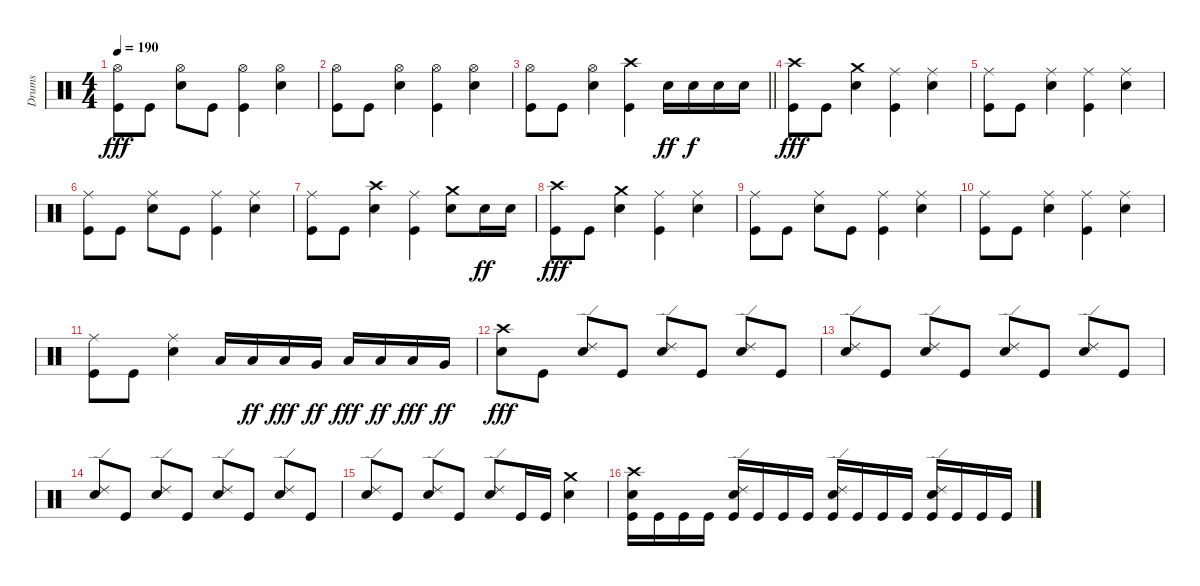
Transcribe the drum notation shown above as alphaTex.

\track ("Drums" "Drums") {instrument percussion}
\staff {score}
\articulation defaults
\ts (4 4)
\tempo 190
\clef neutral
\ks c
("Hi-Hat (open)" "Kick (hit)").8{dy fff} "Kick (hit)".8 ("Hi-Hat (open)" "Snare (hit) 2").8 "Kick (hit)".8 ("Hi-Hat (open)" "Kick (hit)").4 ("Hi-Hat (open)" "Snare (hit) 2").4 |
("Hi-Hat (open)" "Kick (hit)").8 "Kick (hit)".8 ("Hi-Hat (open)" "Snare (hit) 2").4 ("Hi-Hat (open)" "Kick (hit)").4 ("Hi-Hat (open)" "Snare (hit) 2").4 |
\barLineRight lightlight
("Hi-Hat (open)" "Kick (hit)").8 "Kick (hit)".8 ("Hi-Hat (open)" "Snare (hit) 2").4 ("Crash high (hit)" "Kick (hit)").4 "Snare (hit) 2".16{dy ff} "Snare (hit) 2".16{dy f} "Snare (hit) 2".16 "Snare (hit) 2".16 |
("Crash high (hit)" "Kick (hit)").8{dy fff} "Kick (hit)".8 ("Crash medium (hit)" "Snare (hit) 2").4 ("Ride (middle)" "Kick (hit)").4 ("Ride (middle)" "Snare (hit) 2").4 |
("Ride (middle)" "Kick (hit)").8 "Kick (hit)".8 ("Ride (middle)" "Snare (hit) 2").4 ("Ride (middle)" "Kick (hit)").4 ("Ride (middle)" "Snare (hit) 2").4 |
("Ride (middle)" "Kick (hit)").8 "Kick (hit)".8 ("Ride (middle)" "Snare (hit) 2").8 "Kick (hit)".8 ("Ride (middle)" "Kick (hit)").4 ("Ride (middle)" "Snare (hit) 2").4 |
("Ride (middle)" "Kick (hit)").8 "Kick (hit)".8 ("Crash high (hit)" "Snare (hit) 2").4 ("Ride (middle)" "Kick (hit)").4 ("Crash medium (hit)" "Snare (hit) 2").8 "Snare (hit) 2".16{dy ff} "Snare (hit) 2".16 |
("Crash high (hit)" "Kick (hit)").8{dy fff} "Kick (hit)".8 ("Crash medium (hit)" "Snare (hit) 2").4 ("Ride (middle)" "Kick (hit)").4 ("Ride (middle)" "Snare (hit) 2").4 |
("Ride (middle)" "Kick (hit)").8 "Kick (hit)".8 ("Ride (middle)" "Snare (hit) 2").8 "Kick (hit)".8 ("Ride (middle)" "Kick (hit)").4 ("Ride (middle)" "Snare (hit) 2").4 |
("Ride (middle)" "Kick (hit)").8 "Kick (hit)".8 ("Ride (middle)" "Snare (hit) 2").4 ("Ride (middle)" "Kick (hit)").4 ("Ride (middle)" "Snare (hit) 2").4 |
("Ride (middle)" "Kick (hit)").8 "Kick (hit)".8 ("Ride (middle)" "Snare (hit) 2").4 "Low Floor Tom (hit)".16 "Low Floor Tom (hit)".16{dy ff} "Low Tom (hit)".16{dy fff} "Very Low Tom (hit)".16{dy ff} "Low Floor Tom (hit)".16{dy fff} "Low Floor Tom (hit)".16{dy ff} "Low Tom (hit)".16{dy fff} "Very Low Tom (hit)".16{dy ff} |
("Crash high (hit)" "Snare (hit) 2").8{dy fff} "Kick (hit)".8 ("Ride (edge) 2" "Snare (hit) 2").8 "Kick (hit)".8 ("Ride (edge) 2" "Snare (hit) 2").8 "Kick (hit)".8 ("Ride (edge) 2" "Snare (hit) 2").8 "Kick (hit)".8 |
("Ride (edge) 2" "Snare (hit) 2").8 "Kick (hit)".8 ("Ride (edge) 2" "Snare (hit) 2").8 "Kick (hit)".8 ("Ride (edge) 2" "Snare (hit) 2").8 "Kick (hit)".8 ("Ride (edge) 2" "Snare (hit) 2").8 "Kick (hit)".8 |
("Ride (edge) 2" "Snare (hit) 2").8 "Kick (hit)".8 ("Ride (edge) 2" "Snare (hit) 2").8 "Kick (hit)".8 ("Ride (edge) 2" "Snare (hit) 2").8 "Kick (hit)".8 ("Ride (edge) 2" "Snare (hit) 2").8 "Kick (hit)".8 |
("Ride (edge) 2" "Snare (hit) 2").8 "Kick (hit)".8 ("Ride (edge) 2" "Snare (hit) 2").8 "Kick (hit)".8 ("Ride (edge) 2" "Snare (hit) 2").8 "Kick (hit)".16 "Kick (hit)".16 ("Crash medium (hit)" "Snare (hit) 2").4 |
("Crash high (hit)" "Snare (hit) 2" "Kick (hit)").16 "Kick (hit)".16 "Kick (hit)".16 "Kick (hit)".16 ("Ride (edge) 2" "Snare (hit) 2" "Kick (hit)").16 "Kick (hit)".16 "Kick (hit)".16 "Kick (hit)".16 ("Ride (edge) 2" "Snare (hit) 2" "Kick (hit)").16 "Kick (hit)".16 "Kick (hit)".16 "Kick (hit)".16 ("Ride (edge) 2" "Snare (hit) 2" "Kick (hit)").16 "Kick (hit)".16 "Kick (hit)".16 "Kick (hit)".16
